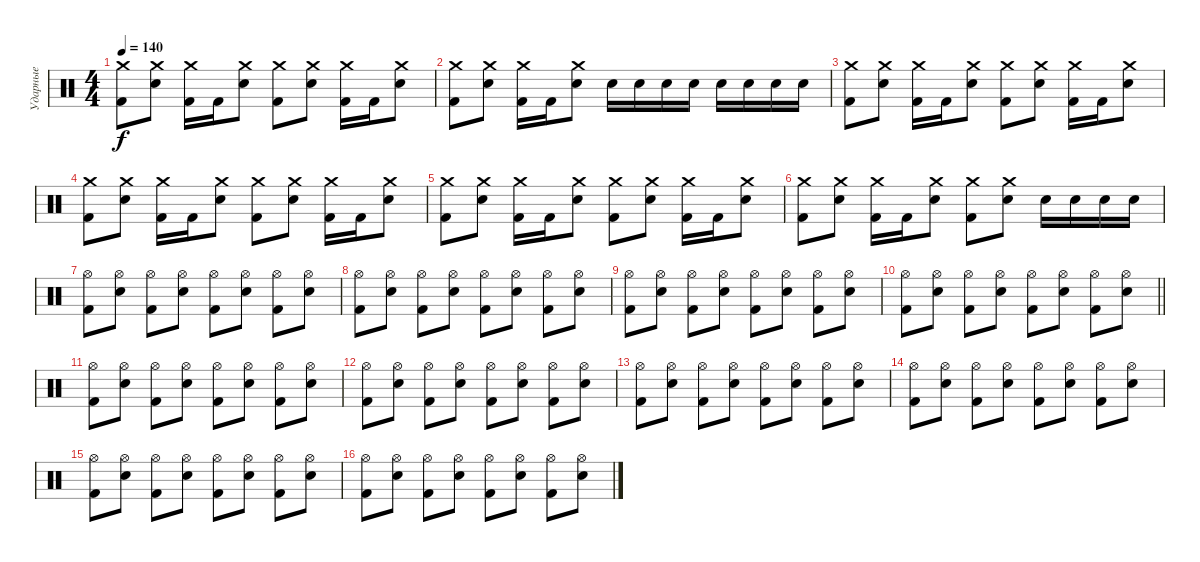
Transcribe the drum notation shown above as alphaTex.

\track ("Ударные" "Ударные") {instrument percussion}
\staff {score}
\articulation defaults
\ts (4 4)
\tempo 140
\clef neutral
\ks c
("Crash medium (hit)" "Kick (hit) 2").8{dy f} ("Crash medium (hit)" "Electric Snare (hit)").8 ("Crash medium (hit)" "Kick (hit) 2").16 "Kick (hit) 2".16 ("Crash medium (hit)" "Electric Snare (hit)").8 ("Crash medium (hit)" "Kick (hit) 2").8 ("Crash medium (hit)" "Electric Snare (hit)").8 ("Crash medium (hit)" "Kick (hit) 2").16 "Kick (hit) 2".16 ("Crash medium (hit)" "Electric Snare (hit)").8 |
("Crash medium (hit)" "Kick (hit) 2").8 ("Crash medium (hit)" "Electric Snare (hit)").8 ("Crash medium (hit)" "Kick (hit) 2").16 "Kick (hit) 2".16 ("Crash medium (hit)" "Electric Snare (hit)").8 "Electric Snare (hit)".16 "Electric Snare (hit)".16 "Electric Snare (hit)".16 "Electric Snare (hit)".16 "Electric Snare (hit)".16 "Electric Snare (hit)".16 "Electric Snare (hit)".16 "Electric Snare (hit)".16 |
("Crash medium (hit)" "Kick (hit) 2").8 ("Crash medium (hit)" "Electric Snare (hit)").8 ("Crash medium (hit)" "Kick (hit) 2").16 "Kick (hit) 2".16 ("Crash medium (hit)" "Electric Snare (hit)").8 ("Crash medium (hit)" "Kick (hit) 2").8 ("Crash medium (hit)" "Electric Snare (hit)").8 ("Crash medium (hit)" "Kick (hit) 2").16 "Kick (hit) 2".16 ("Crash medium (hit)" "Electric Snare (hit)").8 |
("Crash medium (hit)" "Kick (hit) 2").8 ("Crash medium (hit)" "Electric Snare (hit)").8 ("Crash medium (hit)" "Kick (hit) 2").16 "Kick (hit) 2".16 ("Crash medium (hit)" "Electric Snare (hit)").8 ("Crash medium (hit)" "Kick (hit) 2").8 ("Crash medium (hit)" "Electric Snare (hit)").8 ("Crash medium (hit)" "Kick (hit) 2").16 "Kick (hit) 2".16 ("Crash medium (hit)" "Electric Snare (hit)").8 |
("Crash medium (hit)" "Kick (hit) 2").8 ("Crash medium (hit)" "Electric Snare (hit)").8 ("Crash medium (hit)" "Kick (hit) 2").16 "Kick (hit) 2".16 ("Crash medium (hit)" "Electric Snare (hit)").8 ("Crash medium (hit)" "Kick (hit) 2").8 ("Crash medium (hit)" "Electric Snare (hit)").8 ("Crash medium (hit)" "Kick (hit) 2").16 "Kick (hit) 2".16 ("Crash medium (hit)" "Electric Snare (hit)").8 |
("Crash medium (hit)" "Kick (hit) 2").8 ("Crash medium (hit)" "Electric Snare (hit)").8 ("Crash medium (hit)" "Kick (hit) 2").16 "Kick (hit) 2".16 ("Crash medium (hit)" "Electric Snare (hit)").8 ("Crash medium (hit)" "Kick (hit) 2").8 ("Crash medium (hit)" "Electric Snare (hit)").8 "Electric Snare (hit)".16 "Electric Snare (hit)".16 "Electric Snare (hit)".16 "Electric Snare (hit)".16 |
("Hi-Hat (open)" "Kick (hit) 2").8 ("Hi-Hat (open)" "Electric Snare (hit)").8 ("Hi-Hat (open)" "Kick (hit) 2").8 ("Hi-Hat (open)" "Electric Snare (hit)").8 ("Hi-Hat (open)" "Kick (hit) 2").8 ("Hi-Hat (open)" "Electric Snare (hit)").8 ("Hi-Hat (open)" "Kick (hit) 2").8 ("Hi-Hat (open)" "Electric Snare (hit)").8 |
("Hi-Hat (open)" "Kick (hit) 2").8 ("Hi-Hat (open)" "Electric Snare (hit)").8 ("Hi-Hat (open)" "Kick (hit) 2").8 ("Hi-Hat (open)" "Electric Snare (hit)").8 ("Hi-Hat (open)" "Kick (hit) 2").8 ("Hi-Hat (open)" "Electric Snare (hit)").8 ("Hi-Hat (open)" "Kick (hit) 2").8 ("Hi-Hat (open)" "Electric Snare (hit)").8 |
("Hi-Hat (open)" "Kick (hit) 2").8 ("Hi-Hat (open)" "Electric Snare (hit)").8 ("Hi-Hat (open)" "Kick (hit) 2").8 ("Hi-Hat (open)" "Electric Snare (hit)").8 ("Hi-Hat (open)" "Kick (hit) 2").8 ("Hi-Hat (open)" "Electric Snare (hit)").8 ("Hi-Hat (open)" "Kick (hit) 2").8 ("Hi-Hat (open)" "Electric Snare (hit)").8 |
\barLineRight lightlight
("Hi-Hat (open)" "Kick (hit) 2").8 ("Hi-Hat (open)" "Electric Snare (hit)").8 ("Hi-Hat (open)" "Kick (hit) 2").8 ("Hi-Hat (open)" "Electric Snare (hit)").8 ("Hi-Hat (open)" "Kick (hit) 2").8 ("Hi-Hat (open)" "Electric Snare (hit)").8 ("Hi-Hat (open)" "Kick (hit) 2").8 ("Hi-Hat (open)" "Electric Snare (hit)").8 |
("Hi-Hat (open)" "Kick (hit) 2").8 ("Hi-Hat (open)" "Electric Snare (hit)").8 ("Hi-Hat (open)" "Kick (hit) 2").8 ("Hi-Hat (open)" "Electric Snare (hit)").8 ("Hi-Hat (open)" "Kick (hit) 2").8 ("Hi-Hat (open)" "Electric Snare (hit)").8 ("Hi-Hat (open)" "Kick (hit) 2").8 ("Hi-Hat (open)" "Electric Snare (hit)").8 |
("Hi-Hat (open)" "Kick (hit) 2").8 ("Hi-Hat (open)" "Electric Snare (hit)").8 ("Hi-Hat (open)" "Kick (hit) 2").8 ("Hi-Hat (open)" "Electric Snare (hit)").8 ("Hi-Hat (open)" "Kick (hit) 2").8 ("Hi-Hat (open)" "Electric Snare (hit)").8 ("Hi-Hat (open)" "Kick (hit) 2").8 ("Hi-Hat (open)" "Electric Snare (hit)").8 |
("Hi-Hat (open)" "Kick (hit) 2").8 ("Hi-Hat (open)" "Electric Snare (hit)").8 ("Hi-Hat (open)" "Kick (hit) 2").8 ("Hi-Hat (open)" "Electric Snare (hit)").8 ("Hi-Hat (open)" "Kick (hit) 2").8 ("Hi-Hat (open)" "Electric Snare (hit)").8 ("Hi-Hat (open)" "Kick (hit) 2").8 ("Hi-Hat (open)" "Electric Snare (hit)").8 |
("Hi-Hat (open)" "Kick (hit) 2").8 ("Hi-Hat (open)" "Electric Snare (hit)").8 ("Hi-Hat (open)" "Kick (hit) 2").8 ("Hi-Hat (open)" "Electric Snare (hit)").8 ("Hi-Hat (open)" "Kick (hit) 2").8 ("Hi-Hat (open)" "Electric Snare (hit)").8 ("Hi-Hat (open)" "Kick (hit) 2").8 ("Hi-Hat (open)" "Electric Snare (hit)").8 |
("Hi-Hat (open)" "Kick (hit) 2").8 ("Hi-Hat (open)" "Electric Snare (hit)").8 ("Hi-Hat (open)" "Kick (hit) 2").8 ("Hi-Hat (open)" "Electric Snare (hit)").8 ("Hi-Hat (open)" "Kick (hit) 2").8 ("Hi-Hat (open)" "Electric Snare (hit)").8 ("Hi-Hat (open)" "Kick (hit) 2").8 ("Hi-Hat (open)" "Electric Snare (hit)").8 |
("Hi-Hat (open)" "Kick (hit) 2").8 ("Hi-Hat (open)" "Electric Snare (hit)").8 ("Hi-Hat (open)" "Kick (hit) 2").8 ("Hi-Hat (open)" "Electric Snare (hit)").8 ("Hi-Hat (open)" "Kick (hit) 2").8 ("Hi-Hat (open)" "Electric Snare (hit)").8 ("Hi-Hat (open)" "Kick (hit) 2").8 ("Hi-Hat (open)" "Electric Snare (hit)").8
